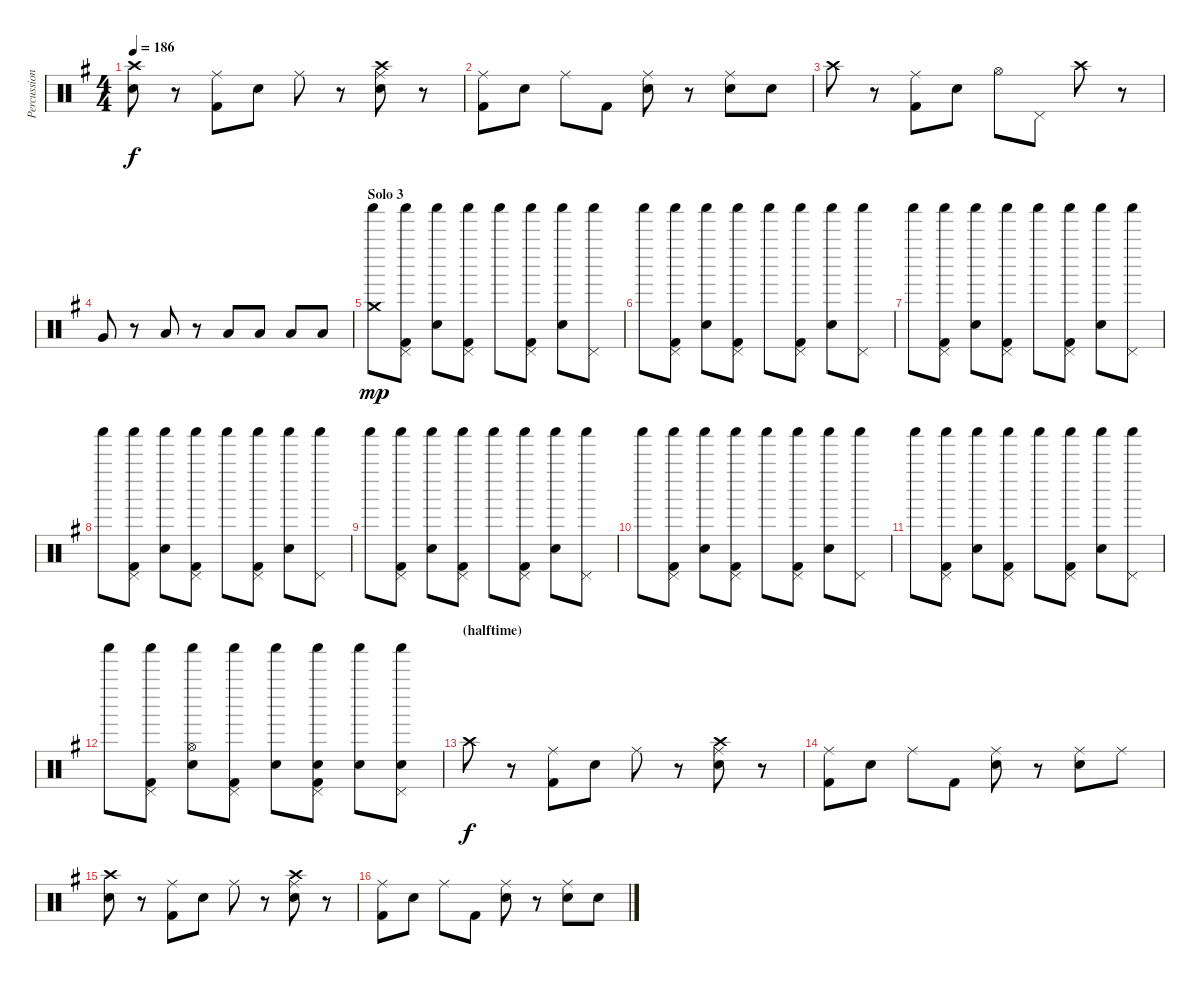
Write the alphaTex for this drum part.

\track ("Percussion" "Percussion") {instrument percussion}
\staff {score}
\articulation defaults
\ts (4 4)
\tempo 186
\clef neutral
\ks g
("Crash high (hit)" "Electric Snare (hit)").8{dy f} r.8 ("Ride (middle)" "Kick (hit) 2").8 "Electric Snare (hit)".8 "Ride (middle)".8 r.8 ("Ride (middle)" "Crash high (hit)" "Electric Snare (hit)").8 r.8 |
("Ride (middle)" "Kick (hit) 2").8 "Electric Snare (hit)".8 "Ride (middle)".8 "Kick (hit) 2".8 ("Ride (middle)" "Electric Snare (hit)").8 r.8 ("Ride (middle)" "Electric Snare (hit)").8 "Electric Snare (hit)".8 |
"Crash high (hit)".8 r.8 ("Ride (middle)" "Kick (hit) 2").8 "Electric Snare (hit)".8 "Hi-Hat (open)".8 "Pedal Hi-Hat (hit)".8 "Crash high (hit)".8 r.8 |
"Very Low Tom (hit)".8 r.8 "Low Tom (hit)".8 r.8 "Low Floor Tom (hit)".8 "Low Floor Tom (hit)".8 "Low Floor Tom (hit)".8 "Low Floor Tom (hit)".8 |
\section ("" "Solo 3")
("Shaker (hit)" "Crash medium (hit)").8{dy mp} ("Shaker (hit)" "Pedal Hi-Hat (hit)" "Kick (hit) 2").8 ("Shaker (hit)" "Electric Snare (hit)").8 ("Shaker (hit)" "Pedal Hi-Hat (hit)" "Kick (hit) 2").8 "Shaker (hit)".8 ("Shaker (hit)" "Pedal Hi-Hat (hit)" "Kick (hit) 2").8 ("Shaker (hit)" "Electric Snare (hit)").8 ("Shaker (hit)" "Pedal Hi-Hat (hit)").8 |
"Shaker (hit)".8 ("Shaker (hit)" "Pedal Hi-Hat (hit)" "Kick (hit) 2").8 ("Shaker (hit)" "Electric Snare (hit)").8 ("Shaker (hit)" "Pedal Hi-Hat (hit)" "Kick (hit) 2").8 "Shaker (hit)".8 ("Shaker (hit)" "Pedal Hi-Hat (hit)" "Kick (hit) 2").8 ("Shaker (hit)" "Electric Snare (hit)").8 ("Shaker (hit)" "Pedal Hi-Hat (hit)").8 |
"Shaker (hit)".8 ("Shaker (hit)" "Pedal Hi-Hat (hit)" "Kick (hit) 2").8 ("Shaker (hit)" "Electric Snare (hit)").8 ("Shaker (hit)" "Pedal Hi-Hat (hit)" "Kick (hit) 2").8 "Shaker (hit)".8 ("Shaker (hit)" "Pedal Hi-Hat (hit)" "Kick (hit) 2").8 ("Shaker (hit)" "Electric Snare (hit)").8 ("Shaker (hit)" "Pedal Hi-Hat (hit)").8 |
"Shaker (hit)".8 ("Shaker (hit)" "Pedal Hi-Hat (hit)" "Kick (hit) 2").8 ("Shaker (hit)" "Electric Snare (hit)").8 ("Shaker (hit)" "Pedal Hi-Hat (hit)" "Kick (hit) 2").8 "Shaker (hit)".8 ("Shaker (hit)" "Pedal Hi-Hat (hit)" "Kick (hit) 2").8 ("Shaker (hit)" "Electric Snare (hit)").8 ("Shaker (hit)" "Pedal Hi-Hat (hit)").8 |
"Shaker (hit)".8 ("Shaker (hit)" "Pedal Hi-Hat (hit)" "Kick (hit) 2").8 ("Shaker (hit)" "Electric Snare (hit)").8 ("Shaker (hit)" "Pedal Hi-Hat (hit)" "Kick (hit) 2").8 "Shaker (hit)".8 ("Shaker (hit)" "Pedal Hi-Hat (hit)" "Kick (hit) 2").8 ("Shaker (hit)" "Electric Snare (hit)").8 ("Shaker (hit)" "Pedal Hi-Hat (hit)").8 |
"Shaker (hit)".8 ("Shaker (hit)" "Pedal Hi-Hat (hit)" "Kick (hit) 2").8 ("Shaker (hit)" "Electric Snare (hit)").8 ("Shaker (hit)" "Pedal Hi-Hat (hit)" "Kick (hit) 2").8 "Shaker (hit)".8 ("Shaker (hit)" "Pedal Hi-Hat (hit)" "Kick (hit) 2").8 ("Shaker (hit)" "Electric Snare (hit)").8 ("Shaker (hit)" "Pedal Hi-Hat (hit)").8 |
"Shaker (hit)".8 ("Shaker (hit)" "Pedal Hi-Hat (hit)" "Kick (hit) 2").8 ("Shaker (hit)" "Electric Snare (hit)").8 ("Shaker (hit)" "Pedal Hi-Hat (hit)" "Kick (hit) 2").8 "Shaker (hit)".8 ("Shaker (hit)" "Pedal Hi-Hat (hit)" "Kick (hit) 2").8 ("Shaker (hit)" "Electric Snare (hit)").8 ("Shaker (hit)" "Pedal Hi-Hat (hit)").8 |
"Shaker (hit)".8 ("Shaker (hit)" "Pedal Hi-Hat (hit)" "Kick (hit) 2").8 ("Shaker (hit)" "Hi-Hat (open)" "Electric Snare (hit)").8 ("Shaker (hit)" "Pedal Hi-Hat (hit)" "Kick (hit) 2").8 ("Shaker (hit)" "Electric Snare (hit)").8 ("Shaker (hit)" "Pedal Hi-Hat (hit)" "Electric Snare (hit)" "Kick (hit) 2").8 ("Shaker (hit)" "Electric Snare (hit)").8 ("Shaker (hit)" "Pedal Hi-Hat (hit)" "Electric Snare (hit)").8 |
\section ("" "(halftime)")
"Crash high (hit)".8{dy f} r.8 ("Ride (middle)" "Kick (hit) 2").8 "Electric Snare (hit)".8 "Ride (middle)".8 r.8 ("Ride (middle)" "Crash high (hit)" "Electric Snare (hit)").8 r.8 |
("Ride (middle)" "Kick (hit) 2").8 "Electric Snare (hit)".8 "Ride (middle)".8 "Kick (hit) 2".8 ("Ride (middle)" "Electric Snare (hit)").8 r.8 ("Ride (middle)" "Electric Snare (hit)").8 "Ride (middle)".8 |
("Crash high (hit)" "Electric Snare (hit)").8 r.8 ("Ride (middle)" "Kick (hit) 2").8 "Electric Snare (hit)".8 "Ride (middle)".8 r.8 ("Ride (middle)" "Crash high (hit)" "Electric Snare (hit)").8 r.8 |
("Ride (middle)" "Kick (hit) 2").8 "Electric Snare (hit)".8 "Ride (middle)".8 "Kick (hit) 2".8 ("Ride (middle)" "Electric Snare (hit)").8 r.8 ("Ride (middle)" "Electric Snare (hit)").8 "Electric Snare (hit)".8
